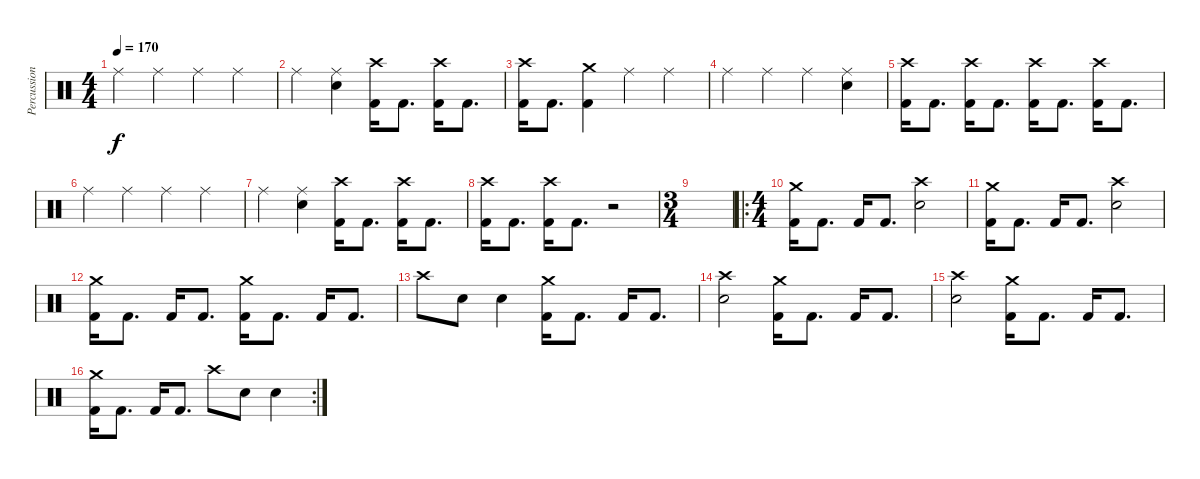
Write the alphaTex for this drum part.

\track ("Percussion" "Percussion") {instrument percussion}
\staff {score}
\articulation defaults
\ts (4 4)
\tempo 170
\clef neutral
\ks c "Ride (middle)".4{dy f} "Ride (middle)".4 "Ride (middle)".4 "Ride (middle)".4
|
"Ride (middle)".4 ("Ride (middle)" "Electric Snare (hit)").4 ("Crash high (hit)" "Kick (hit) 2").16 "Kick (hit) 2".8{d} ("Crash high (hit)" "Kick (hit) 2").16 "Kick (hit) 2".8{d} |
("Crash high (hit)" "Kick (hit) 2").16 "Kick (hit) 2".8{d} ("Crash medium (hit)" "Kick (hit) 2").4 "Ride (middle)".4 "Ride (middle)".4 |
"Ride (middle)".4 "Ride (middle)".4 "Ride (middle)".4 ("Ride (middle)" "Electric Snare (hit)").4 |
("Crash high (hit)" "Kick (hit) 2").16 "Kick (hit) 2".8{d} ("Crash high (hit)" "Kick (hit) 2").16 "Kick (hit) 2".8{d} ("Crash high (hit)" "Kick (hit) 2").16 "Kick (hit) 2".8{d} ("Crash high (hit)" "Kick (hit) 2").16 "Kick (hit) 2".8{d} |
"Ride (middle)".4 "Ride (middle)".4 "Ride (middle)".4 "Ride (middle)".4 |
"Ride (middle)".4 ("Ride (middle)" "Electric Snare (hit)").4 ("Crash high (hit)" "Kick (hit) 2").16 "Kick (hit) 2".8{d} ("Crash high (hit)" "Kick (hit) 2").16 "Kick (hit) 2".8{d} |
("Crash high (hit)" "Kick (hit) 2").16 "Kick (hit) 2".8{d} ("Crash high (hit)" "Kick (hit) 2").16 "Kick (hit) 2".8{d} r.2 |
\ts (3 4)
|
\ro
\ts (4 4)
("Crash medium (hit)" "Kick (hit) 2").16 "Kick (hit) 2".8{d} "Kick (hit) 2".16 "Kick (hit) 2".8{d} ("Crash high (hit)" "Electric Snare (hit)").2 |
("Crash medium (hit)" "Kick (hit) 2").16 "Kick (hit) 2".8{d} "Kick (hit) 2".16 "Kick (hit) 2".8{d} ("Crash high (hit)" "Electric Snare (hit)").2 |
("Crash medium (hit)" "Kick (hit) 2").16 "Kick (hit) 2".8{d} "Kick (hit) 2".16 "Kick (hit) 2".8{d} ("Crash medium (hit)" "Kick (hit) 2").16 "Kick (hit) 2".8{d} "Kick (hit) 2".16 "Kick (hit) 2".8{d} |
"Crash high (hit)".8 "Electric Snare (hit)".8 "Electric Snare (hit)".4 ("Crash medium (hit)" "Kick (hit) 2").16 "Kick (hit) 2".8{d} "Kick (hit) 2".16 "Kick (hit) 2".8{d} |
("Crash high (hit)" "Electric Snare (hit)").2 ("Crash medium (hit)" "Kick (hit) 2").16 "Kick (hit) 2".8{d} "Kick (hit) 2".16 "Kick (hit) 2".8{d} |
("Crash high (hit)" "Electric Snare (hit)").2 ("Crash medium (hit)" "Kick (hit) 2").16 "Kick (hit) 2".8{d} "Kick (hit) 2".16 "Kick (hit) 2".8{d} |
\rc 2
("Crash medium (hit)" "Kick (hit) 2").16 "Kick (hit) 2".8{d} "Kick (hit) 2".16 "Kick (hit) 2".8{d} "Crash high (hit)".8 "Electric Snare (hit)".8 "Electric Snare (hit)".4
